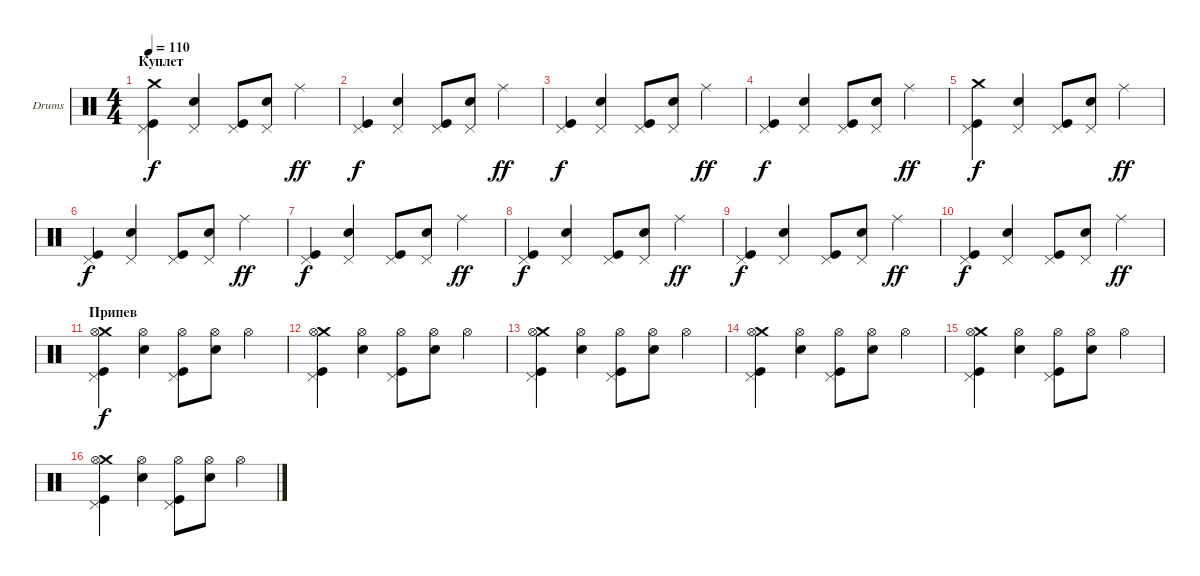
\defaultSystemsLayout 4
\bracketExtendMode groupsimilarinstruments
\firstSystemTrackNameOrientation horizontal
\otherSystemsTrackNameOrientation horizontal
\track ("Е. Кулаков" "Drums") {instrument percussion}
\staff {score}
\articulation defaults
\ts (4 4)
\section ("" "Куплет")
\tempo 110
\clef neutral
\ks c
("Crash medium (hit)" "Pedal Hi-Hat (hit)" "Kick (hit)").4{dy f} ("Snare (hit) 2" "Pedal Hi-Hat (hit)").4 ("Pedal Hi-Hat (hit)" "Kick (hit)").8 ("Snare (hit) 2" "Pedal Hi-Hat (hit)").8 "Ride (middle)".4{dy ff} |
("Pedal Hi-Hat (hit)" "Kick (hit)").4{dy f} ("Snare (hit) 2" "Pedal Hi-Hat (hit)").4 ("Pedal Hi-Hat (hit)" "Kick (hit)").8 ("Snare (hit) 2" "Pedal Hi-Hat (hit)").8 "Ride (middle)".4{dy ff} |
("Pedal Hi-Hat (hit)" "Kick (hit)").4{dy f} ("Snare (hit) 2" "Pedal Hi-Hat (hit)").4 ("Pedal Hi-Hat (hit)" "Kick (hit)").8 ("Snare (hit) 2" "Pedal Hi-Hat (hit)").8 "Ride (middle)".4{dy ff} |
("Pedal Hi-Hat (hit)" "Kick (hit)").4{dy f} ("Snare (hit) 2" "Pedal Hi-Hat (hit)").4 ("Pedal Hi-Hat (hit)" "Kick (hit)").8 ("Snare (hit) 2" "Pedal Hi-Hat (hit)").8 "Ride (middle)".4{dy ff} |
("Crash medium (hit)" "Pedal Hi-Hat (hit)" "Kick (hit)").4{dy f} ("Snare (hit) 2" "Pedal Hi-Hat (hit)").4 ("Pedal Hi-Hat (hit)" "Kick (hit)").8 ("Snare (hit) 2" "Pedal Hi-Hat (hit)").8 "Ride (middle)".4{dy ff} |
("Pedal Hi-Hat (hit)" "Kick (hit)").4{dy f} ("Snare (hit) 2" "Pedal Hi-Hat (hit)").4 ("Pedal Hi-Hat (hit)" "Kick (hit)").8 ("Snare (hit) 2" "Pedal Hi-Hat (hit)").8 "Ride (middle)".4{dy ff} |
("Pedal Hi-Hat (hit)" "Kick (hit)").4{dy f} ("Snare (hit) 2" "Pedal Hi-Hat (hit)").4 ("Pedal Hi-Hat (hit)" "Kick (hit)").8 ("Snare (hit) 2" "Pedal Hi-Hat (hit)").8 "Ride (middle)".4{dy ff} |
("Pedal Hi-Hat (hit)" "Kick (hit)").4{dy f} ("Snare (hit) 2" "Pedal Hi-Hat (hit)").4 ("Pedal Hi-Hat (hit)" "Kick (hit)").8 ("Snare (hit) 2" "Pedal Hi-Hat (hit)").8 "Ride (middle)".4{dy ff} |
("Pedal Hi-Hat (hit)" "Kick (hit)").4{dy f} ("Snare (hit) 2" "Pedal Hi-Hat (hit)").4 ("Pedal Hi-Hat (hit)" "Kick (hit)").8 ("Snare (hit) 2" "Pedal Hi-Hat (hit)").8 "Ride (middle)".4{dy ff} |
("Pedal Hi-Hat (hit)" "Kick (hit)").4{dy f} ("Snare (hit) 2" "Pedal Hi-Hat (hit)").4 ("Pedal Hi-Hat (hit)" "Kick (hit)").8 ("Snare (hit) 2" "Pedal Hi-Hat (hit)").8 "Ride (middle)".4{dy ff} |
\section ("" "Припев")
("Crash medium (hit)" "Pedal Hi-Hat (hit)" "Kick (hit)" "Hi-Hat (open)").4{dy f} ("Snare (hit) 2" "Hi-Hat (open)").4 ("Pedal Hi-Hat (hit)" "Kick (hit)" "Hi-Hat (open)").8 ("Snare (hit) 2" "Hi-Hat (open)").8 "Hi-Hat (open)".4 |
("Crash medium (hit)" "Pedal Hi-Hat (hit)" "Kick (hit)" "Hi-Hat (open)").4 ("Snare (hit) 2" "Hi-Hat (open)").4 ("Pedal Hi-Hat (hit)" "Kick (hit)" "Hi-Hat (open)").8 ("Snare (hit) 2" "Hi-Hat (open)").8 "Hi-Hat (open)".4 |
("Crash medium (hit)" "Pedal Hi-Hat (hit)" "Kick (hit)" "Hi-Hat (open)").4 ("Snare (hit) 2" "Hi-Hat (open)").4 ("Pedal Hi-Hat (hit)" "Kick (hit)" "Hi-Hat (open)").8 ("Snare (hit) 2" "Hi-Hat (open)").8 "Hi-Hat (open)".4 |
("Crash medium (hit)" "Pedal Hi-Hat (hit)" "Kick (hit)" "Hi-Hat (open)").4 ("Snare (hit) 2" "Hi-Hat (open)").4 ("Pedal Hi-Hat (hit)" "Kick (hit)" "Hi-Hat (open)").8 ("Snare (hit) 2" "Hi-Hat (open)").8 "Hi-Hat (open)".4 |
("Crash medium (hit)" "Pedal Hi-Hat (hit)" "Kick (hit)" "Hi-Hat (open)").4 ("Snare (hit) 2" "Hi-Hat (open)").4 ("Pedal Hi-Hat (hit)" "Kick (hit)" "Hi-Hat (open)").8 ("Snare (hit) 2" "Hi-Hat (open)").8 "Hi-Hat (open)".4 |
("Crash medium (hit)" "Pedal Hi-Hat (hit)" "Kick (hit)" "Hi-Hat (open)").4 ("Snare (hit) 2" "Hi-Hat (open)").4 ("Pedal Hi-Hat (hit)" "Kick (hit)" "Hi-Hat (open)").8 ("Snare (hit) 2" "Hi-Hat (open)").8 "Hi-Hat (open)".4
